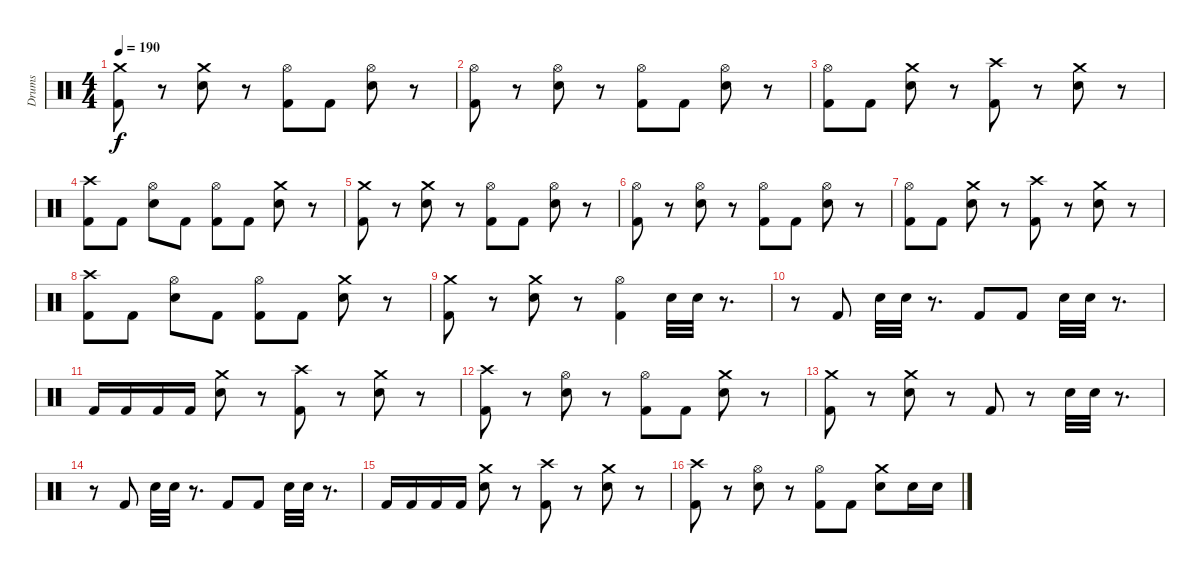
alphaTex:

\track ("Drums" "Drums") {instrument percussion}
\staff {score}
\articulation defaults
\ts (4 4)
\tempo 190
\clef neutral
\ks c
("Kick (hit) 2" "Crash medium (hit)").8{dy f} r.8 ("Electric Snare (hit)" "Crash medium (hit)").8 r.8 ("Hi-Hat (open)" "Kick (hit) 2").8 "Kick (hit) 2".8 ("Hi-Hat (open)" "Electric Snare (hit)").8 r.8 |
("Hi-Hat (open)" "Kick (hit) 2").8 r.8 ("Hi-Hat (open)" "Electric Snare (hit)").8 r.8 ("Hi-Hat (open)" "Kick (hit) 2").8 "Kick (hit) 2".8 ("Hi-Hat (open)" "Electric Snare (hit)").8 r.8 |
("Kick (hit) 2" "Hi-Hat (open)").8 "Kick (hit) 2".8 ("Electric Snare (hit)" "Crash medium (hit)").8 r.8 ("Kick (hit) 2" "Crash high (hit)").8 r.8 ("Electric Snare (hit)" "Crash medium (hit)").8 r.8 |
("Kick (hit) 2" "Crash high (hit)").8 "Kick (hit) 2".8 ("Electric Snare (hit)" "Hi-Hat (open)").8 "Kick (hit) 2".8 ("Kick (hit) 2" "Hi-Hat (open)").8 "Kick (hit) 2".8 ("Electric Snare (hit)" "Crash medium (hit)").8 r.8 |
("Kick (hit) 2" "Crash medium (hit)").8 r.8 ("Electric Snare (hit)" "Crash medium (hit)").8 r.8 ("Hi-Hat (open)" "Kick (hit) 2").8 "Kick (hit) 2".8 ("Hi-Hat (open)" "Electric Snare (hit)").8 r.8 |
("Hi-Hat (open)" "Kick (hit) 2").8 r.8 ("Hi-Hat (open)" "Electric Snare (hit)").8 r.8 ("Hi-Hat (open)" "Kick (hit) 2").8 "Kick (hit) 2".8 ("Hi-Hat (open)" "Electric Snare (hit)").8 r.8 |
("Kick (hit) 2" "Hi-Hat (open)").8 "Kick (hit) 2".8 ("Electric Snare (hit)" "Crash medium (hit)").8 r.8 ("Kick (hit) 2" "Crash high (hit)").8 r.8 ("Electric Snare (hit)" "Crash medium (hit)").8 r.8 |
("Kick (hit) 2" "Crash high (hit)").8 "Kick (hit) 2".8 ("Electric Snare (hit)" "Hi-Hat (open)").8 "Kick (hit) 2".8 ("Kick (hit) 2" "Hi-Hat (open)").8 "Kick (hit) 2".8 ("Electric Snare (hit)" "Crash medium (hit)").8 r.8 |
("Kick (hit) 2" "Crash medium (hit)").8 r.8 ("Electric Snare (hit)" "Crash medium (hit)").8 r.8 ("Hi-Hat (open)" "Kick (hit) 2").4 "Electric Snare (hit)".32 "Electric Snare (hit)".32 r.8{d} |
r.8 "Kick (hit) 2".8 "Electric Snare (hit)".32 "Electric Snare (hit)".32 r.8{d} "Kick (hit) 2".8 "Kick (hit) 2".8 "Electric Snare (hit)".32 "Electric Snare (hit)".32 r.8{d} |
"Kick (hit) 2".16 "Kick (hit) 2".16 "Kick (hit) 2".16 "Kick (hit) 2".16 ("Electric Snare (hit)" "Crash medium (hit)").8 r.8 ("Kick (hit) 2" "Crash high (hit)").8 r.8 ("Electric Snare (hit)" "Crash medium (hit)").8 r.8 |
("Kick (hit) 2" "Crash high (hit)").8 r.8 ("Electric Snare (hit)" "Hi-Hat (open)").8 r.8 ("Kick (hit) 2" "Hi-Hat (open)").8 "Kick (hit) 2".8 ("Electric Snare (hit)" "Crash medium (hit)").8 r.8 |
("Kick (hit) 2" "Crash medium (hit)").8 r.8 ("Electric Snare (hit)" "Crash medium (hit)").8 r.8 "Kick (hit) 2".8 r.8 "Electric Snare (hit)".32 "Electric Snare (hit)".32 r.8{d} |
r.8 "Kick (hit) 2".8 "Electric Snare (hit)".32 "Electric Snare (hit)".32 r.8{d} "Kick (hit) 2".8 "Kick (hit) 2".8 "Electric Snare (hit)".32 "Electric Snare (hit)".32 r.8{d} |
"Kick (hit) 2".16 "Kick (hit) 2".16 "Kick (hit) 2".16 "Kick (hit) 2".16 ("Electric Snare (hit)" "Crash medium (hit)").8 r.8 ("Kick (hit) 2" "Crash high (hit)").8 r.8 ("Electric Snare (hit)" "Crash medium (hit)").8 r.8 |
("Kick (hit) 2" "Crash high (hit)").8 r.8 ("Electric Snare (hit)" "Hi-Hat (open)").8 r.8 ("Kick (hit) 2" "Hi-Hat (open)").8 "Kick (hit) 2".8 ("Electric Snare (hit)" "Crash medium (hit)").8 "Electric Snare (hit)".16 "Electric Snare (hit)".16
